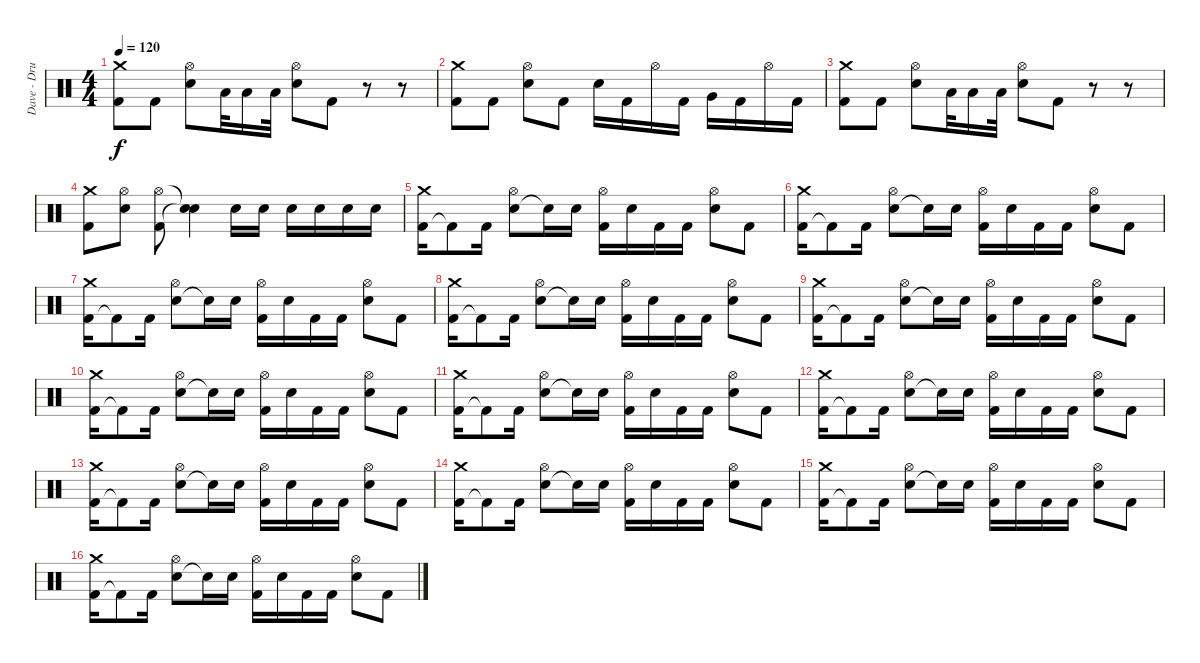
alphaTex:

\track ("Dave - Drums" "Dave - Dru") {instrument percussion}
\staff {score}
\articulation defaults
\ts (4 4)
\tempo 120
\clef neutral
\ks c
("Kick (hit) 2" "Crash medium (hit)").8{dy f} "Kick (hit) 2".8 ("Snare (hit) 2" "Hi-Hat (open)").8 "Low Tom (hit)".32 "Low Tom (hit)".16 "Low Tom (hit)".32 ("Snare (hit) 2" "Hi-Hat (open)").8 "Kick (hit) 2".8 r.8 r.8 |
("Kick (hit) 2" "Crash medium (hit)").8 "Kick (hit) 2".8 ("Snare (hit) 2" "Hi-Hat (open)").8 "Kick (hit) 2".8 "Snare (hit) 2".16 "Kick (hit) 2".16 "Hi-Hat (open)".16 "Kick (hit) 2".16 "Very Low Tom (hit)".16 "Kick (hit) 2".16 "Hi-Hat (open)".16 "Kick (hit) 2".16 |
("Kick (hit) 2" "Crash medium (hit)").8 "Kick (hit) 2".8 ("Snare (hit) 2" "Hi-Hat (open)").8 "Low Tom (hit)".32 "Low Tom (hit)".16 "Low Tom (hit)".32 ("Snare (hit) 2" "Hi-Hat (open)").8 "Kick (hit) 2".8 r.8 r.8 |
("Kick (hit) 2" "Crash medium (hit)").8 ("Snare (hit) 2" "Hi-Hat (open)").8 ("Kick (hit) 2" "Hi-Hat (open)").8 ("Snare (hit)"{t} "Snare (hit)"{t}).4 "Snare (hit) 2".16 "Snare (hit) 2".16 "Snare (hit) 2".16 "Snare (hit) 2".16 "Snare (hit) 2".16 "Snare (hit) 2".16 |
("Kick (hit) 2" "Crash medium (hit)").16 "Kick (hit) 2"{t}.8 "Kick (hit) 2".16 ("Snare (hit) 2" "Hi-Hat (open)").8 "Snare (hit)"{t}.16 "Snare (hit) 2".16 ("Kick (hit) 2" "Hi-Hat (open)").16 "Snare (hit) 2".16 "Kick (hit) 2".16 "Kick (hit) 2".16 ("Snare (hit) 2" "Hi-Hat (open)").8 "Kick (hit) 2".8 |
("Kick (hit) 2" "Crash medium (hit)").16 "Kick (hit) 2"{t}.8 "Kick (hit) 2".16 ("Snare (hit) 2" "Hi-Hat (open)").8 "Snare (hit)"{t}.16 "Snare (hit) 2".16 ("Kick (hit) 2" "Hi-Hat (open)").16 "Snare (hit) 2".16 "Kick (hit) 2".16 "Kick (hit) 2".16 ("Snare (hit) 2" "Hi-Hat (open)").8 "Kick (hit) 2".8 |
("Kick (hit) 2" "Crash medium (hit)").16 "Kick (hit) 2"{t}.8 "Kick (hit) 2".16 ("Snare (hit) 2" "Hi-Hat (open)").8 "Snare (hit)"{t}.16 "Snare (hit) 2".16 ("Kick (hit) 2" "Hi-Hat (open)").16 "Snare (hit) 2".16 "Kick (hit) 2".16 "Kick (hit) 2".16 ("Snare (hit) 2" "Hi-Hat (open)").8 "Kick (hit) 2".8 |
("Kick (hit) 2" "Crash medium (hit)").16 "Kick (hit) 2"{t}.8 "Kick (hit) 2".16 ("Snare (hit) 2" "Hi-Hat (open)").8 "Snare (hit)"{t}.16 "Snare (hit) 2".16 ("Kick (hit) 2" "Hi-Hat (open)").16 "Snare (hit) 2".16 "Kick (hit) 2".16 "Kick (hit) 2".16 ("Snare (hit) 2" "Hi-Hat (open)").8 "Kick (hit) 2".8 |
("Kick (hit) 2" "Crash medium (hit)").16 "Kick (hit) 2"{t}.8 "Kick (hit) 2".16 ("Snare (hit) 2" "Hi-Hat (open)").8 "Snare (hit)"{t}.16 "Snare (hit) 2".16 ("Kick (hit) 2" "Hi-Hat (open)").16 "Snare (hit) 2".16 "Kick (hit) 2".16 "Kick (hit) 2".16 ("Snare (hit) 2" "Hi-Hat (open)").8 "Kick (hit) 2".8 |
("Kick (hit) 2" "Crash medium (hit)").16 "Kick (hit) 2"{t}.8 "Kick (hit) 2".16 ("Snare (hit) 2" "Hi-Hat (open)").8 "Snare (hit)"{t}.16 "Snare (hit) 2".16 ("Kick (hit) 2" "Hi-Hat (open)").16 "Snare (hit) 2".16 "Kick (hit) 2".16 "Kick (hit) 2".16 ("Snare (hit) 2" "Hi-Hat (open)").8 "Kick (hit) 2".8 |
("Kick (hit) 2" "Crash medium (hit)").16 "Kick (hit) 2"{t}.8 "Kick (hit) 2".16 ("Snare (hit) 2" "Hi-Hat (open)").8 "Snare (hit)"{t}.16 "Snare (hit) 2".16 ("Kick (hit) 2" "Hi-Hat (open)").16 "Snare (hit) 2".16 "Kick (hit) 2".16 "Kick (hit) 2".16 ("Snare (hit) 2" "Hi-Hat (open)").8 "Kick (hit) 2".8 |
("Kick (hit) 2" "Crash medium (hit)").16 "Kick (hit) 2"{t}.8 "Kick (hit) 2".16 ("Snare (hit) 2" "Hi-Hat (open)").8 "Snare (hit)"{t}.16 "Snare (hit) 2".16 ("Kick (hit) 2" "Hi-Hat (open)").16 "Snare (hit) 2".16 "Kick (hit) 2".16 "Kick (hit) 2".16 ("Snare (hit) 2" "Hi-Hat (open)").8 "Kick (hit) 2".8 |
("Kick (hit) 2" "Crash medium (hit)").16 "Kick (hit) 2"{t}.8 "Kick (hit) 2".16 ("Snare (hit) 2" "Hi-Hat (open)").8 "Snare (hit)"{t}.16 "Snare (hit) 2".16 ("Kick (hit) 2" "Hi-Hat (open)").16 "Snare (hit) 2".16 "Kick (hit) 2".16 "Kick (hit) 2".16 ("Snare (hit) 2" "Hi-Hat (open)").8 "Kick (hit) 2".8 |
("Kick (hit) 2" "Crash medium (hit)").16 "Kick (hit) 2"{t}.8 "Kick (hit) 2".16 ("Snare (hit) 2" "Hi-Hat (open)").8 "Snare (hit)"{t}.16 "Snare (hit) 2".16 ("Kick (hit) 2" "Hi-Hat (open)").16 "Snare (hit) 2".16 "Kick (hit) 2".16 "Kick (hit) 2".16 ("Snare (hit) 2" "Hi-Hat (open)").8 "Kick (hit) 2".8 |
("Kick (hit) 2" "Crash medium (hit)").16 "Kick (hit) 2"{t}.8 "Kick (hit) 2".16 ("Snare (hit) 2" "Hi-Hat (open)").8 "Snare (hit)"{t}.16 "Snare (hit) 2".16 ("Kick (hit) 2" "Hi-Hat (open)").16 "Snare (hit) 2".16 "Kick (hit) 2".16 "Kick (hit) 2".16 ("Snare (hit) 2" "Hi-Hat (open)").8 "Kick (hit) 2".8 |
("Kick (hit) 2" "Crash medium (hit)").16 "Kick (hit) 2"{t}.8 "Kick (hit) 2".16 ("Snare (hit) 2" "Hi-Hat (open)").8 "Snare (hit)"{t}.16 "Snare (hit) 2".16 ("Kick (hit) 2" "Hi-Hat (open)").16 "Snare (hit) 2".16 "Kick (hit) 2".16 "Kick (hit) 2".16 ("Snare (hit) 2" "Hi-Hat (open)").8 "Kick (hit) 2".8
